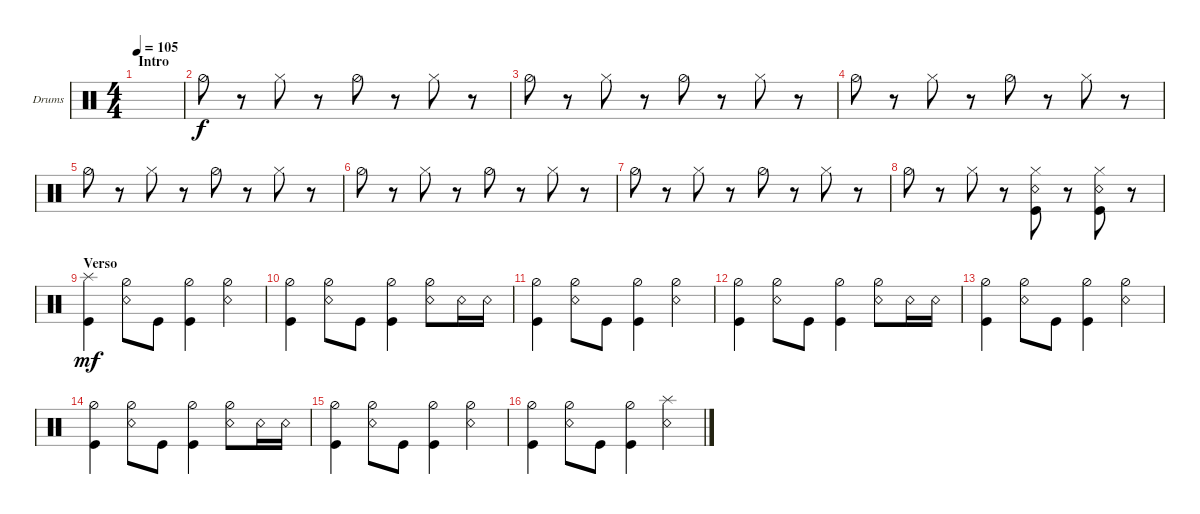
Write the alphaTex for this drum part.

\defaultSystemsLayout 4
\bracketExtendMode groupsimilarinstruments
\firstSystemTrackNameOrientation horizontal
\otherSystemsTrackNameOrientation horizontal
\track ("Drumkit" "Drums") {instrument percussion}
\staff {score}
\articulation defaults
\ts (4 4)
\section ("" "Intro")
\tempo 105
\clef neutral
\ks c
|
"Hi-Hat (half)".8 r.8 "Hi-Hat (closed)".8 r.8 "Hi-Hat (half)".8 r.8 "Hi-Hat (closed)".8 r.8 |
"Hi-Hat (half)".8 r.8 "Hi-Hat (closed)".8 r.8 "Hi-Hat (half)".8 r.8 "Hi-Hat (closed)".8 r.8 |
"Hi-Hat (half)".8 r.8 "Hi-Hat (closed)".8 r.8 "Hi-Hat (half)".8 r.8 "Hi-Hat (closed)".8 r.8 |
"Hi-Hat (half)".8 r.8 "Hi-Hat (closed)".8 r.8 "Hi-Hat (half)".8 r.8 "Hi-Hat (closed)".8 r.8 |
"Hi-Hat (half)".8 r.8 "Hi-Hat (closed)".8 r.8 "Hi-Hat (half)".8 r.8 "Hi-Hat (closed)".8 r.8 |
"Hi-Hat (half)".8 r.8 "Hi-Hat (closed)".8 r.8 "Hi-Hat (half)".8 r.8 "Hi-Hat (closed)".8 r.8 |
"Hi-Hat (half)".8 r.8 "Hi-Hat (closed)".8 r.8 ("Hi-Hat (closed)" "Snare (rim shot)" "Kick (hit)").8{dy f} r.8 ("Hi-Hat (closed)" "Snare (rim shot)" "Kick (hit)").8 r.8 |
\section ("" "Verso")
("Kick (hit)" "Splash (hit)").4{dy mf} ("Snare (rim shot)" "Hi-Hat (half)").8 "Kick (hit)".8 ("Kick (hit)" "Hi-Hat (half)").4 ("Snare (rim shot)" "Hi-Hat (half)").4 |
("Kick (hit)" "Hi-Hat (half)").4 ("Snare (rim shot)" "Hi-Hat (half)").8 "Kick (hit)".8 ("Kick (hit)" "Hi-Hat (half)").4 ("Snare (rim shot)" "Hi-Hat (half)").8 "Snare (rim shot)".16 "Snare (rim shot)".16 |
("Kick (hit)" "Hi-Hat (half)").4 ("Snare (rim shot)" "Hi-Hat (half)").8 "Kick (hit)".8 ("Kick (hit)" "Hi-Hat (half)").4 ("Snare (rim shot)" "Hi-Hat (half)").4 |
("Kick (hit)" "Hi-Hat (half)").4 ("Snare (rim shot)" "Hi-Hat (half)").8 "Kick (hit)".8 ("Kick (hit)" "Hi-Hat (half)").4 ("Snare (rim shot)" "Hi-Hat (half)").8 "Snare (rim shot)".16 "Snare (rim shot)".16 |
("Kick (hit)" "Hi-Hat (half)").4 ("Snare (rim shot)" "Hi-Hat (half)").8 "Kick (hit)".8 ("Kick (hit)" "Hi-Hat (half)").4 ("Snare (rim shot)" "Hi-Hat (half)").4 |
("Kick (hit)" "Hi-Hat (half)").4 ("Snare (rim shot)" "Hi-Hat (half)").8 "Kick (hit)".8 ("Kick (hit)" "Hi-Hat (half)").4 ("Snare (rim shot)" "Hi-Hat (half)").8 "Snare (rim shot)".16 "Snare (rim shot)".16 |
("Kick (hit)" "Hi-Hat (half)").4 ("Snare (rim shot)" "Hi-Hat (half)").8 "Kick (hit)".8 ("Kick (hit)" "Hi-Hat (half)").4 ("Snare (rim shot)" "Hi-Hat (half)").4 |
("Kick (hit)" "Hi-Hat (half)").4 ("Snare (rim shot)" "Hi-Hat (half)").8 "Kick (hit)".8 ("Kick (hit)" "Hi-Hat (half)").4 ("Snare (rim shot)" "Splash (hit)").4
